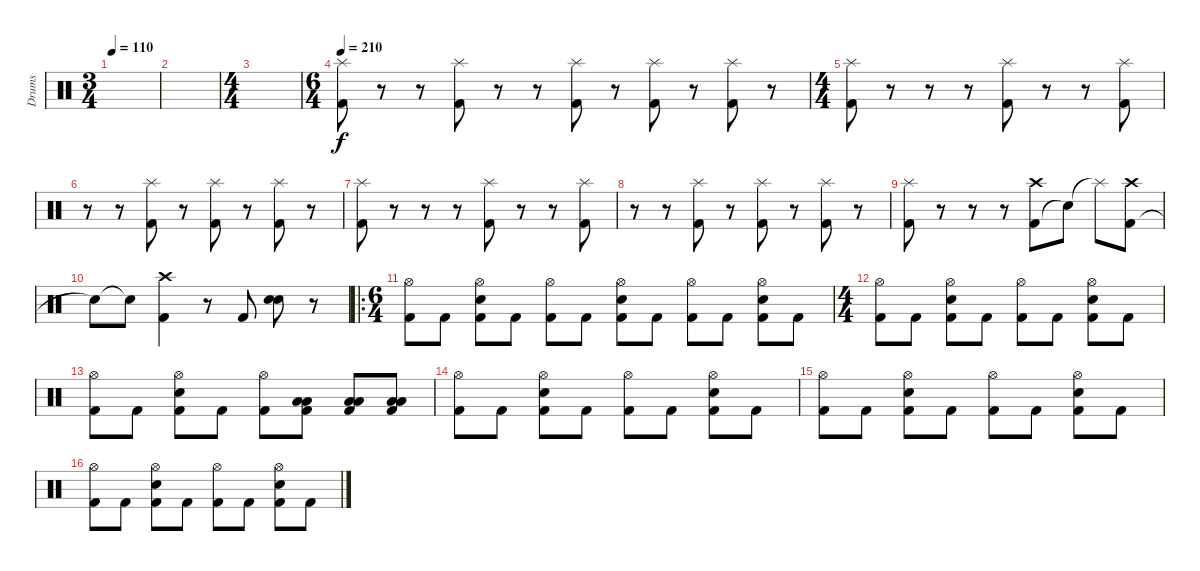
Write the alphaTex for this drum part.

\track ("Drums" "Drums") {instrument percussion}
\staff {score}
\articulation defaults
\ts (3 4)
\tempo 110
\clef neutral
\ks c
|
|
\ts (4 4)
|
\ts (6 4)
\tempo 210
("Kick (hit) 2" "Splash (hit)").8 r.8 r.8 ("Kick (hit) 2" "Splash (hit)").8 r.8 r.8 ("Kick (hit) 2" "Splash (hit)").8 r.8 ("Kick (hit) 2" "Splash (hit)").8 r.8 ("Kick (hit) 2" "Splash (hit)").8 r.8 |
\ts (4 4)
("Kick (hit) 2" "Splash (hit)").8 r.8 r.8 r.8 ("Kick (hit) 2" "Splash (hit)").8 r.8 r.8 ("Kick (hit) 2" "Splash (hit)").8 |
r.8 r.8 ("Kick (hit) 2" "Splash (hit)").8 r.8 ("Kick (hit) 2" "Splash (hit)").8 r.8 ("Kick (hit) 2" "Splash (hit)").8 r.8 |
("Kick (hit) 2" "Splash (hit)").8 r.8 r.8 r.8 ("Kick (hit) 2" "Splash (hit)").8 r.8 r.8 ("Kick (hit) 2" "Splash (hit)").8 |
r.8 r.8 ("Kick (hit) 2" "Splash (hit)").8 r.8 ("Kick (hit) 2" "Splash (hit)").8 r.8 ("Kick (hit) 2" "Splash (hit)").8 r.8 |
("Kick (hit) 2" "Splash (hit)").8 r.8 r.8 r.8 ("Kick (hit) 2" "Crash high (hit)").8 "Snare (hit)"{t}.8 "Splash (hit)"{t}.8 ("Kick (hit) 2" "Crash high (hit)").8 |
"Snare (hit)"{t}.8 "Snare (hit)"{t}.8 ("Kick (hit) 2" "Crash high (hit)").4 r.8 "Kick (hit) 2".8 ("Snare (hit) 2" "Snare (hit) 2").8 r.8 |
\ro
\ts (6 4)
("Kick (hit) 2" "Hi-Hat (open)").8 "Kick (hit) 2".8 ("Kick (hit) 2" "Snare (hit) 2" "Hi-Hat (open)").8 "Kick (hit) 2".8 ("Kick (hit) 2" "Hi-Hat (open)").8 "Kick (hit) 2".8 ("Kick (hit) 2" "Snare (hit) 2" "Hi-Hat (open)").8 "Kick (hit) 2".8 ("Kick (hit) 2" "Hi-Hat (open)").8 "Kick (hit) 2".8 ("Kick (hit) 2" "Snare (hit) 2" "Hi-Hat (open)").8 "Kick (hit) 2".8 |
\ts (4 4)
("Kick (hit) 2" "Hi-Hat (open)").8 "Kick (hit) 2".8 ("Kick (hit) 2" "Snare (hit) 2" "Hi-Hat (open)").8 "Kick (hit) 2".8 ("Kick (hit) 2" "Hi-Hat (open)").8 "Kick (hit) 2".8 ("Kick (hit) 2" "Snare (hit) 2" "Hi-Hat (open)").8 "Kick (hit) 2".8 |
("Kick (hit) 2" "Hi-Hat (open)").8 "Kick (hit) 2".8 ("Kick (hit) 2" "Snare (hit) 2" "Hi-Hat (open)").8 "Kick (hit) 2".8 ("Kick (hit) 2" "Hi-Hat (open)").8 ("Kick (hit) 2" "Low Tom (hit)" "Low Tom (hit)").8 ("Kick (hit) 2" "Low Tom (hit)" "Low Tom (hit)").8 ("Kick (hit) 2" "Low Tom (hit)" "Low Tom (hit)").8 |
("Kick (hit) 2" "Hi-Hat (open)").8 "Kick (hit) 2".8 ("Kick (hit) 2" "Snare (hit) 2" "Hi-Hat (open)").8 "Kick (hit) 2".8 ("Kick (hit) 2" "Hi-Hat (open)").8 "Kick (hit) 2".8 ("Kick (hit) 2" "Snare (hit) 2" "Hi-Hat (open)").8 "Kick (hit) 2".8 |
("Kick (hit) 2" "Hi-Hat (open)").8 "Kick (hit) 2".8 ("Kick (hit) 2" "Snare (hit) 2" "Hi-Hat (open)").8 "Kick (hit) 2".8 ("Kick (hit) 2" "Hi-Hat (open)").8 "Kick (hit) 2".8 ("Kick (hit) 2" "Snare (hit) 2" "Hi-Hat (open)").8 "Kick (hit) 2".8 |
("Kick (hit) 2" "Hi-Hat (open)").8 "Kick (hit) 2".8 ("Kick (hit) 2" "Snare (hit) 2" "Hi-Hat (open)").8 "Kick (hit) 2".8 ("Kick (hit) 2" "Hi-Hat (open)").8 "Kick (hit) 2".8 ("Kick (hit) 2" "Snare (hit) 2" "Hi-Hat (open)").8 "Kick (hit) 2".8
